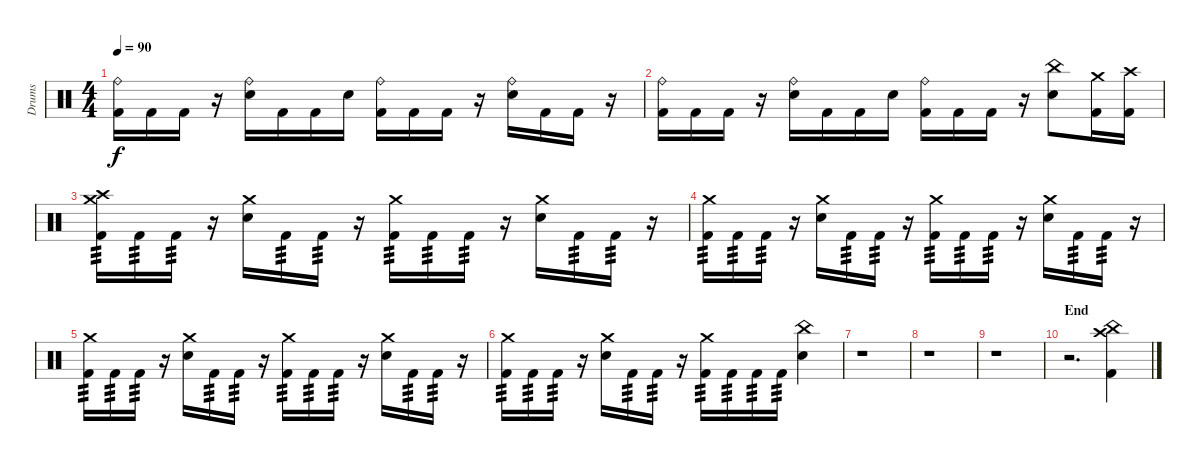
\track ("Drums" "Drums") {instrument percussion}
\staff {score}
\articulation defaults
\ts (4 4)
\tempo 90
\clef neutral
\ks c
("Ride (bell)" "Kick (hit) 2").16{dy f} "Kick (hit) 2".16 "Kick (hit) 2".16 r.16 ("Ride (bell)" "Snare (hit) 2").16 "Kick (hit) 2".16 "Kick (hit) 2".16 "Snare (hit) 2".16 ("Ride (bell)" "Kick (hit) 2").16 "Kick (hit) 2".16 "Kick (hit) 2".16 r.16 ("Ride (bell)" "Snare (hit) 2").16 "Kick (hit) 2".16 "Kick (hit) 2".16 r.16 |
("Ride (bell)" "Kick (hit) 2").16 "Kick (hit) 2".16 "Kick (hit) 2".16 r.16 ("Ride (bell)" "Snare (hit) 2").16 "Kick (hit) 2".16 "Kick (hit) 2".16 "Snare (hit) 2".16 ("Ride (bell)" "Kick (hit) 2").16 "Kick (hit) 2".16 "Kick (hit) 2".16 r.16 ("China (hit)" "Snare (hit) 2").8 ("Crash medium (hit)" "Kick (hit) 2").16 ("Crash high (hit)" "Kick (hit) 2").16 |
("Crash high (hit)" "Crash medium (hit)" "Kick (hit) 2").16{tp 3} "Kick (hit) 2".16{tp 3} "Kick (hit) 2".16{tp 3} r.16 ("Crash medium (hit)" "Snare (hit) 2").16 "Kick (hit) 2".16{tp 3} "Kick (hit) 2".16{tp 3} r.16 ("Crash medium (hit)" "Kick (hit) 2").16{tp 3} "Kick (hit) 2".16{tp 3} "Kick (hit) 2".16{tp 3} r.16 ("Crash medium (hit)" "Snare (hit) 2").16 "Kick (hit) 2".16{tp 3} "Kick (hit) 2".16{tp 3} r.16 |
("Crash medium (hit)" "Kick (hit) 2").16{tp 3} "Kick (hit) 2".16{tp 3} "Kick (hit) 2".16{tp 3} r.16 ("Crash medium (hit)" "Snare (hit) 2").16 "Kick (hit) 2".16{tp 3} "Kick (hit) 2".16{tp 3} r.16 ("Crash medium (hit)" "Kick (hit) 2").16{tp 3} "Kick (hit) 2".16{tp 3} "Kick (hit) 2".16{tp 3} r.16 ("Crash medium (hit)" "Snare (hit) 2").16 "Kick (hit) 2".16{tp 3} "Kick (hit) 2".16{tp 3} r.16 |
("Crash medium (hit)" "Kick (hit) 2").16{tp 3} "Kick (hit) 2".16{tp 3} "Kick (hit) 2".16{tp 3} r.16 ("Crash medium (hit)" "Snare (hit) 2").16 "Kick (hit) 2".16{tp 3} "Kick (hit) 2".16{tp 3} r.16 ("Crash medium (hit)" "Kick (hit) 2").16{tp 3} "Kick (hit) 2".16{tp 3} "Kick (hit) 2".16{tp 3} r.16 ("Crash medium (hit)" "Snare (hit) 2").16 "Kick (hit) 2".16{tp 3} "Kick (hit) 2".16{tp 3} r.16 |
("Crash medium (hit)" "Kick (hit) 2").16{tp 3} "Kick (hit) 2".16{tp 3} "Kick (hit) 2".16{tp 3} r.16 ("Crash medium (hit)" "Snare (hit) 2").16 "Kick (hit) 2".16{tp 3} "Kick (hit) 2".16{tp 3} r.16 ("Crash medium (hit)" "Kick (hit) 2").16{tp 3} "Kick (hit) 2".16{tp 3} "Kick (hit) 2".16{tp 3} "Kick (hit) 2".16{tp 3} ("China (hit)" "Snare (hit) 2").4 |
r.1 |
r.1 |
r.1 |
\section ("" "End")
r.2{d} ("China (hit)" "Crash high (hit)" "Kick (hit) 2").4
